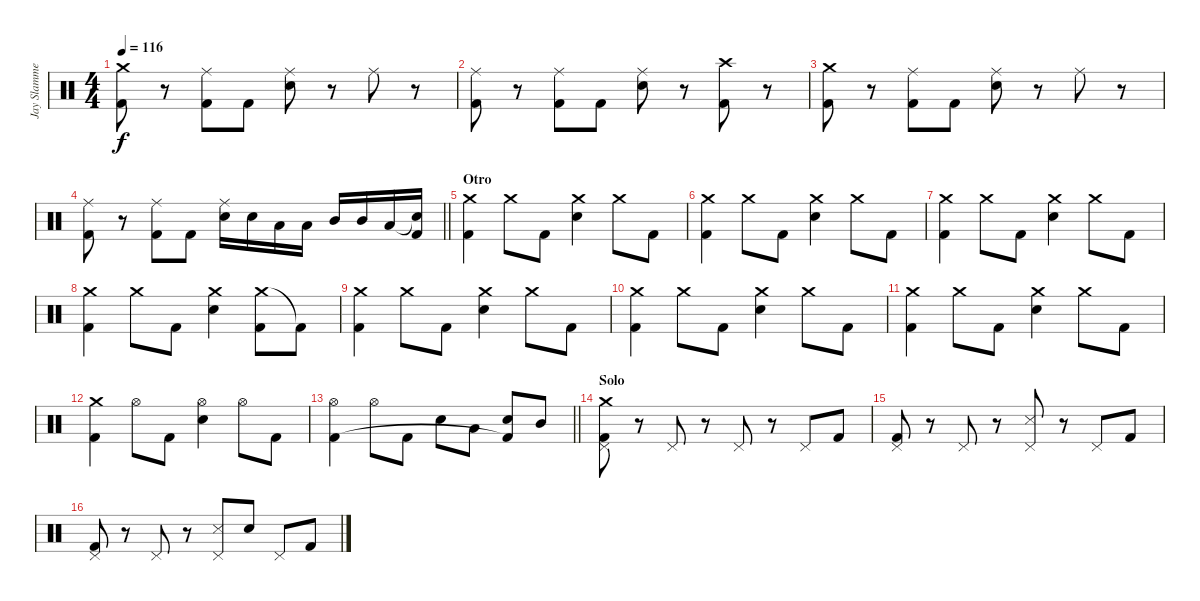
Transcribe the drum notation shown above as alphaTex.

\track ("Jay Slammer " "Jay Slamme") {instrument percussion}
\staff {score}
\articulation defaults
\ts (4 4)
\tempo 116
\clef neutral
\ks c
("Crash medium (hit)" "Kick (hit) 2").8{dy f} r.8 ("Ride (middle)" "Kick (hit) 2").8 "Kick (hit) 2".8 ("Ride (middle)" "Snare (hit) 2").8 r.8 "Ride (middle)".8 r.8 |
("Ride (middle)" "Kick (hit) 2").8 r.8 ("Ride (middle)" "Kick (hit) 2").8 "Kick (hit) 2".8 ("Ride (middle)" "Snare (hit) 2").8 r.8 ("Crash high (hit)" "Kick (hit) 2").8 r.8 |
("Crash medium (hit)" "Kick (hit) 2").8 r.8 ("Ride (middle)" "Kick (hit) 2").8 "Kick (hit) 2".8 ("Ride (middle)" "Snare (hit) 2").8 r.8 "Ride (middle)".8 r.8 |
\barLineRight lightlight
("Ride (middle)" "Kick (hit) 2").8 r.8 ("Ride (middle)" "Kick (hit) 2").8 "Kick (hit) 2".8 ("Ride (middle)" "Snare (hit) 2").16 "Snare (hit) 2".16 "Low Tom (hit)".16 "Low Tom (hit)".16 "Mid Tom (hit)".16 "Mid Tom (hit)".16 "Low Tom (hit)".16 ("Snare (hit)"{t} "Kick (hit) 2").16 |
\section ("" "Otro")
("Crash medium (hit)" "Kick (hit) 2").4 "Crash medium (hit)".8 "Kick (hit) 2".8 ("Crash medium (hit)" "Snare (hit) 2").4 "Crash medium (hit)".8 "Kick (hit) 2".8 |
("Crash medium (hit)" "Kick (hit) 2").4 "Crash medium (hit)".8 "Kick (hit) 2".8 ("Crash medium (hit)" "Snare (hit) 2").4 "Crash medium (hit)".8 "Kick (hit) 2".8 |
("Crash medium (hit)" "Kick (hit) 2").4 "Crash medium (hit)".8 "Kick (hit) 2".8 ("Crash medium (hit)" "Snare (hit) 2").4 "Crash medium (hit)".8 "Kick (hit) 2".8 |
("Crash medium (hit)" "Kick (hit) 2").4 "Crash medium (hit)".8 "Kick (hit) 2".8 ("Crash medium (hit)" "Snare (hit) 2").4 ("Crash medium (hit)" "Kick (hit) 2").8 "Kick (hit) 2"{t}.8 |
("Crash medium (hit)" "Kick (hit) 2").4 "Crash medium (hit)".8 "Kick (hit) 2".8 ("Crash medium (hit)" "Snare (hit) 2").4 "Crash medium (hit)".8 "Kick (hit) 2".8 |
("Crash medium (hit)" "Kick (hit) 2").4 "Crash medium (hit)".8 "Kick (hit) 2".8 ("Crash medium (hit)" "Snare (hit) 2").4 "Crash medium (hit)".8 "Kick (hit) 2".8 |
("Crash medium (hit)" "Kick (hit) 2").4 "Crash medium (hit)".8 "Kick (hit) 2".8 ("Crash medium (hit)" "Snare (hit) 2").4 "Crash medium (hit)".8 "Kick (hit) 2".8 |
("Crash medium (hit)" "Kick (hit) 2").4 "Hi-Hat (open)".8 "Kick (hit) 2".8 ("Hi-Hat (open)" "Snare (hit) 2").4 "Hi-Hat (open)".8 "Kick (hit) 2".8 |
\barLineRight lightlight
("Hi-Hat (open)" "Kick (hit) 2").4 "Hi-Hat (open)".8 "Kick (hit) 2".8 "Snare (hit) 2".8 "Low Tom (hit)".8 ("Snare (hit) 2" "Kick (hit) 2"{t}).8 "Mid Tom (hit)".8 |
\section ("" "Solo")
("Pedal Hi-Hat (hit)" "Kick (hit) 2" "Crash medium (hit)").8 r.8 "Pedal Hi-Hat (hit)".8 r.8 "Pedal Hi-Hat (hit)".8 r.8 "Pedal Hi-Hat (hit)".8 "Kick (hit) 2".8 |
("Pedal Hi-Hat (hit)" "Kick (hit) 2").8 r.8 "Pedal Hi-Hat (hit)".8 r.8 ("Pedal Hi-Hat (hit)" "Metronome (hit)").8 r.8 "Pedal Hi-Hat (hit)".8 "Kick (hit) 2".8 |
("Pedal Hi-Hat (hit)" "Kick (hit) 2").8 r.8 "Pedal Hi-Hat (hit)".8 r.8 ("Pedal Hi-Hat (hit)" "Metronome (hit)").8 "Snare (hit)".8 "Pedal Hi-Hat (hit)".8 "Kick (hit) 2".8
